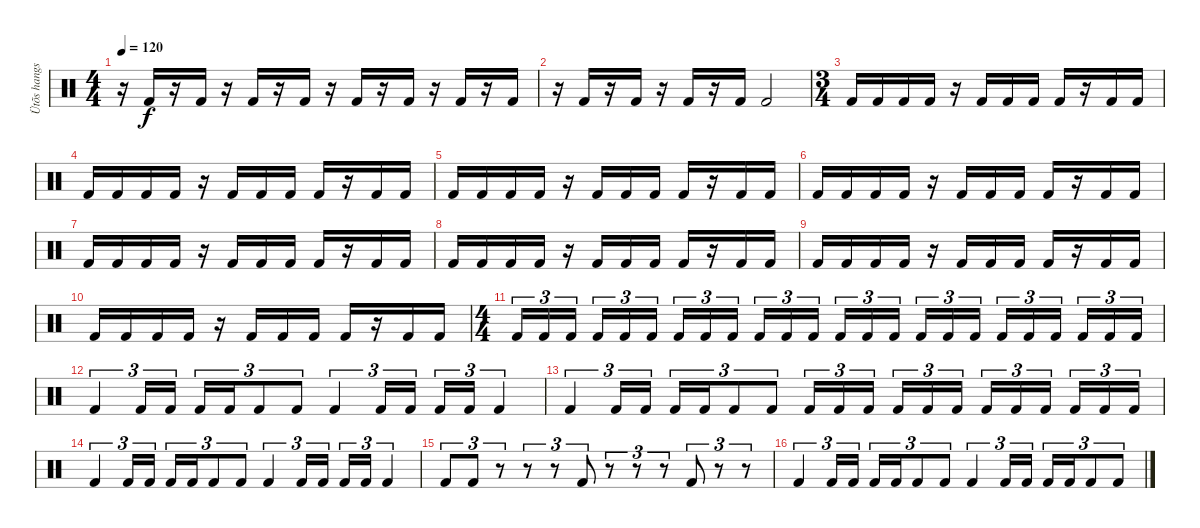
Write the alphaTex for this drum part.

\track ("Ütõs hangszer" "Ütõs hangs") {instrument percussion}
\staff {score}
\articulation defaults
\ts (4 4)
\tempo 120
\clef neutral
\ks c
r.16{dy f} "Kick (hit) 2".16 r.16 "Kick (hit) 2".16 r.16 "Kick (hit) 2".16 r.16 "Kick (hit) 2".16 r.16 "Kick (hit) 2".16 r.16 "Kick (hit) 2".16 r.16 "Kick (hit) 2".16 r.16 "Kick (hit) 2".16 |
r.16 "Kick (hit) 2".16 r.16 "Kick (hit) 2".16 r.16 "Kick (hit) 2".16 r.16 "Kick (hit) 2".16 "Kick (hit) 2".2 |
\ts (3 4)
"Kick (hit) 2".16 "Kick (hit) 2".16 "Kick (hit) 2".16 "Kick (hit) 2".16 r.16 "Kick (hit) 2".16 "Kick (hit) 2".16 "Kick (hit) 2".16 "Kick (hit) 2".16 r.16 "Kick (hit) 2".16 "Kick (hit) 2".16 |
"Kick (hit) 2".16 "Kick (hit) 2".16 "Kick (hit) 2".16 "Kick (hit) 2".16 r.16 "Kick (hit) 2".16 "Kick (hit) 2".16 "Kick (hit) 2".16 "Kick (hit) 2".16 r.16 "Kick (hit) 2".16 "Kick (hit) 2".16 |
"Kick (hit) 2".16 "Kick (hit) 2".16 "Kick (hit) 2".16 "Kick (hit) 2".16 r.16 "Kick (hit) 2".16 "Kick (hit) 2".16 "Kick (hit) 2".16 "Kick (hit) 2".16 r.16 "Kick (hit) 2".16 "Kick (hit) 2".16 |
"Kick (hit) 2".16 "Kick (hit) 2".16 "Kick (hit) 2".16 "Kick (hit) 2".16 r.16 "Kick (hit) 2".16 "Kick (hit) 2".16 "Kick (hit) 2".16 "Kick (hit) 2".16 r.16 "Kick (hit) 2".16 "Kick (hit) 2".16 |
"Kick (hit) 2".16 "Kick (hit) 2".16 "Kick (hit) 2".16 "Kick (hit) 2".16 r.16 "Kick (hit) 2".16 "Kick (hit) 2".16 "Kick (hit) 2".16 "Kick (hit) 2".16 r.16 "Kick (hit) 2".16 "Kick (hit) 2".16 |
"Kick (hit) 2".16 "Kick (hit) 2".16 "Kick (hit) 2".16 "Kick (hit) 2".16 r.16 "Kick (hit) 2".16 "Kick (hit) 2".16 "Kick (hit) 2".16 "Kick (hit) 2".16 r.16 "Kick (hit) 2".16 "Kick (hit) 2".16 |
"Kick (hit) 2".16 "Kick (hit) 2".16 "Kick (hit) 2".16 "Kick (hit) 2".16 r.16 "Kick (hit) 2".16 "Kick (hit) 2".16 "Kick (hit) 2".16 "Kick (hit) 2".16 r.16 "Kick (hit) 2".16 "Kick (hit) 2".16 |
"Kick (hit) 2".16 "Kick (hit) 2".16 "Kick (hit) 2".16 "Kick (hit) 2".16 r.16 "Kick (hit) 2".16 "Kick (hit) 2".16 "Kick (hit) 2".16 "Kick (hit) 2".16 r.16 "Kick (hit) 2".16 "Kick (hit) 2".16 |
\ts (4 4)
"Kick (hit) 2".16{tu (3 2)} "Kick (hit) 2".16{tu (3 2)} "Kick (hit) 2".16{tu (3 2)} "Kick (hit) 2".16{tu (3 2)} "Kick (hit) 2".16{tu (3 2)} "Kick (hit) 2".16{tu (3 2)} "Kick (hit) 2".16{tu (3 2)} "Kick (hit) 2".16{tu (3 2)} "Kick (hit) 2".16{tu (3 2)} "Kick (hit) 2".16{tu (3 2)} "Kick (hit) 2".16{tu (3 2)} "Kick (hit) 2".16{tu (3 2)} "Kick (hit) 2".16{tu (3 2)} "Kick (hit) 2".16{tu (3 2)} "Kick (hit) 2".16{tu (3 2)} "Kick (hit) 2".16{tu (3 2)} "Kick (hit) 2".16{tu (3 2)} "Kick (hit) 2".16{tu (3 2)} "Kick (hit) 2".16{tu (3 2)} "Kick (hit) 2".16{tu (3 2)} "Kick (hit) 2".16{tu (3 2)} "Kick (hit) 2".16{tu (3 2)} "Kick (hit) 2".16{tu (3 2)} "Kick (hit) 2".16{tu (3 2)} |
"Kick (hit) 2".4{tu (3 2)} "Kick (hit) 2".16{tu (3 2)} "Kick (hit) 2".16{tu (3 2)} "Kick (hit) 2".16{tu (3 2)} "Kick (hit) 2".16{tu (3 2)} "Kick (hit) 2".8{tu (3 2)} "Kick (hit) 2".8{tu (3 2)} "Kick (hit) 2".4{tu (3 2)} "Kick (hit) 2".16{tu (3 2)} "Kick (hit) 2".16{tu (3 2)} "Kick (hit) 2".16{tu (3 2)} "Kick (hit) 2".16{tu (3 2)} "Kick (hit) 2".4{tu (3 2)} |
"Kick (hit) 2".4{tu (3 2)} "Kick (hit) 2".16{tu (3 2)} "Kick (hit) 2".16{tu (3 2)} "Kick (hit) 2".16{tu (3 2)} "Kick (hit) 2".16{tu (3 2)} "Kick (hit) 2".8{tu (3 2)} "Kick (hit) 2".8{tu (3 2)} "Kick (hit) 2".16{tu (3 2)} "Kick (hit) 2".16{tu (3 2)} "Kick (hit) 2".16{tu (3 2)} "Kick (hit) 2".16{tu (3 2)} "Kick (hit) 2".16{tu (3 2)} "Kick (hit) 2".16{tu (3 2)} "Kick (hit) 2".16{tu (3 2)} "Kick (hit) 2".16{tu (3 2)} "Kick (hit) 2".16{tu (3 2)} "Kick (hit) 2".16{tu (3 2)} "Kick (hit) 2".16{tu (3 2)} "Kick (hit) 2".16{tu (3 2)} |
"Kick (hit) 2".4{tu (3 2)} "Kick (hit) 2".16{tu (3 2)} "Kick (hit) 2".16{tu (3 2)} "Kick (hit) 2".16{tu (3 2)} "Kick (hit) 2".16{tu (3 2)} "Kick (hit) 2".8{tu (3 2)} "Kick (hit) 2".8{tu (3 2)} "Kick (hit) 2".4{tu (3 2)} "Kick (hit) 2".16{tu (3 2)} "Kick (hit) 2".16{tu (3 2)} "Kick (hit) 2".16{tu (3 2)} "Kick (hit) 2".16{tu (3 2)} "Kick (hit) 2".4{tu (3 2)} |
"Kick (hit) 2".8{tu (3 2)} "Kick (hit) 2".8{tu (3 2)} r.8{tu (3 2)} r.8{tu (3 2)} r.8{tu (3 2)} "Kick (hit) 2".8{tu (3 2)} r.8{tu (3 2)} r.8{tu (3 2)} r.8{tu (3 2)} "Kick (hit) 2".8{tu (3 2)} r.8{tu (3 2)} r.8{tu (3 2)} |
"Kick (hit) 2".4{tu (3 2)} "Kick (hit) 2".16{tu (3 2)} "Kick (hit) 2".16{tu (3 2)} "Kick (hit) 2".16{tu (3 2)} "Kick (hit) 2".16{tu (3 2)} "Kick (hit) 2".8{tu (3 2)} "Kick (hit) 2".8{tu (3 2)} "Kick (hit) 2".4{tu (3 2)} "Kick (hit) 2".16{tu (3 2)} "Kick (hit) 2".16{tu (3 2)} "Kick (hit) 2".16{tu (3 2)} "Kick (hit) 2".16{tu (3 2)} "Kick (hit) 2".8{tu (3 2)} "Kick (hit) 2".8{tu (3 2)}
